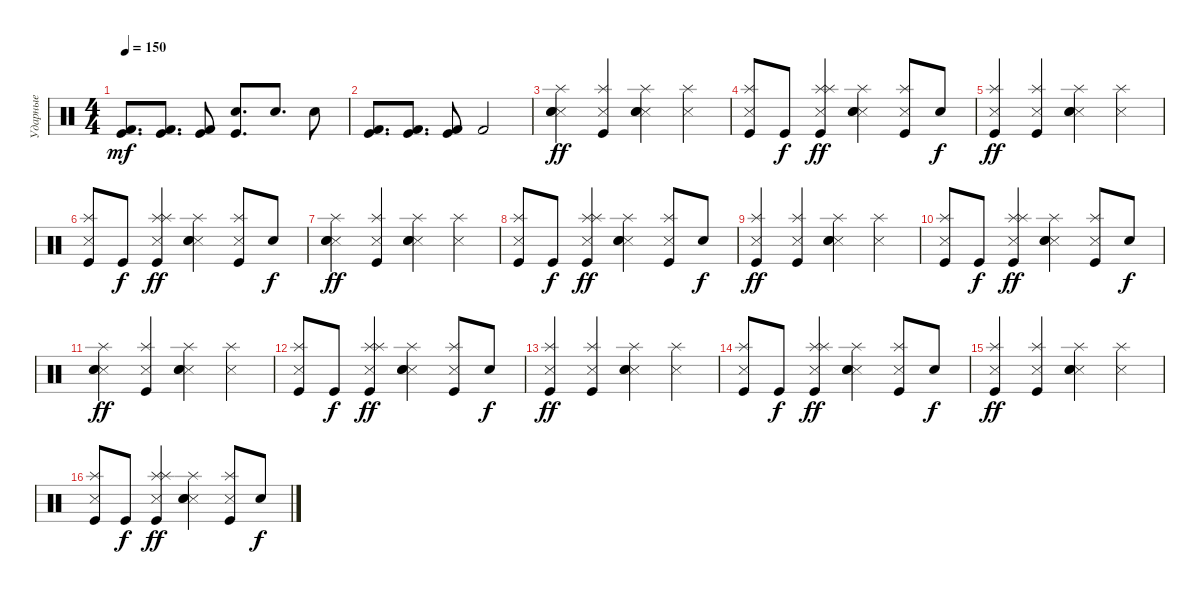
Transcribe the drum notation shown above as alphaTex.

\track ("Ударные" "Ударные") {instrument percussion}
\staff {score}
\articulation defaults
\ts (4 4)
\tempo 150
\clef neutral
\ks c
("Kick (hit)" "Kick (hit) 2").8{d dy mf} ("Kick (hit)" "Kick (hit) 2").8{d} ("Kick (hit)" "Kick (hit) 2").8 ("Electric Snare (hit)" "Kick (hit)").8{d} "Electric Snare (hit)".8{d} "Electric Snare (hit)".8 |
("Kick (hit)" "Kick (hit) 2").8{d} ("Kick (hit)" "Kick (hit) 2").8{d} ("Kick (hit)" "Kick (hit) 2").8 "Kick (hit) 2".2 |
("Splash (hit)" "Metronome (hit)" "Electric Snare (hit)" "Snare (hit) 2").4{dy ff} ("Splash (hit)" "Metronome (hit)" "Kick (hit)").4 ("Splash (hit)" "Metronome (hit)" "Electric Snare (hit)" "Snare (hit) 2").4 ("Splash (hit)" "Metronome (hit)").4 |
("Splash (hit)" "Metronome (hit)" "Kick (hit)").8 "Kick (hit)".8{dy f} ("Splash (hit)" "Metronome (hit)" "Splash (hit)" "Kick (hit)").4{dy ff} ("Splash (hit)" "Metronome (hit)" "Electric Snare (hit)" "Snare (hit) 2").4 ("Splash (hit)" "Metronome (hit)" "Kick (hit)").8 "Electric Snare (hit)".8{dy f} |
("Splash (hit)" "Metronome (hit)" "Kick (hit)").4{dy ff} ("Splash (hit)" "Metronome (hit)" "Kick (hit)").4 ("Splash (hit)" "Metronome (hit)" "Electric Snare (hit)" "Snare (hit) 2").4 ("Splash (hit)" "Metronome (hit)").4 |
("Splash (hit)" "Metronome (hit)" "Kick (hit)").8 "Kick (hit)".8{dy f} ("Splash (hit)" "Metronome (hit)" "Splash (hit)" "Kick (hit)").4{dy ff} ("Splash (hit)" "Metronome (hit)" "Electric Snare (hit)" "Snare (hit) 2").4 ("Splash (hit)" "Metronome (hit)" "Kick (hit)").8 "Electric Snare (hit)".8{dy f} |
("Splash (hit)" "Metronome (hit)" "Electric Snare (hit)" "Snare (hit) 2").4{dy ff} ("Splash (hit)" "Metronome (hit)" "Kick (hit)").4 ("Splash (hit)" "Metronome (hit)" "Electric Snare (hit)" "Snare (hit) 2").4 ("Splash (hit)" "Metronome (hit)").4 |
("Splash (hit)" "Metronome (hit)" "Kick (hit)").8 "Kick (hit)".8{dy f} ("Splash (hit)" "Metronome (hit)" "Splash (hit)" "Kick (hit)").4{dy ff} ("Splash (hit)" "Metronome (hit)" "Electric Snare (hit)" "Snare (hit) 2").4 ("Splash (hit)" "Metronome (hit)" "Kick (hit)").8 "Electric Snare (hit)".8{dy f} |
("Splash (hit)" "Metronome (hit)" "Kick (hit)").4{dy ff} ("Splash (hit)" "Metronome (hit)" "Kick (hit)").4 ("Splash (hit)" "Metronome (hit)" "Electric Snare (hit)" "Snare (hit) 2").4 ("Splash (hit)" "Metronome (hit)").4 |
("Splash (hit)" "Metronome (hit)" "Kick (hit)").8 "Kick (hit)".8{dy f} ("Splash (hit)" "Metronome (hit)" "Splash (hit)" "Kick (hit)").4{dy ff} ("Splash (hit)" "Metronome (hit)" "Electric Snare (hit)" "Snare (hit) 2").4 ("Splash (hit)" "Metronome (hit)" "Kick (hit)").8 "Electric Snare (hit)".8{dy f} |
("Splash (hit)" "Metronome (hit)" "Electric Snare (hit)" "Snare (hit) 2").4{dy ff} ("Splash (hit)" "Metronome (hit)" "Kick (hit)").4 ("Splash (hit)" "Metronome (hit)" "Electric Snare (hit)" "Snare (hit) 2").4 ("Splash (hit)" "Metronome (hit)").4 |
("Splash (hit)" "Metronome (hit)" "Kick (hit)").8 "Kick (hit)".8{dy f} ("Splash (hit)" "Metronome (hit)" "Splash (hit)" "Kick (hit)").4{dy ff} ("Splash (hit)" "Metronome (hit)" "Electric Snare (hit)" "Snare (hit) 2").4 ("Splash (hit)" "Metronome (hit)" "Kick (hit)").8 "Electric Snare (hit)".8{dy f} |
("Splash (hit)" "Metronome (hit)" "Kick (hit)").4{dy ff} ("Splash (hit)" "Metronome (hit)" "Kick (hit)").4 ("Splash (hit)" "Metronome (hit)" "Electric Snare (hit)" "Snare (hit) 2").4 ("Splash (hit)" "Metronome (hit)").4 |
("Splash (hit)" "Metronome (hit)" "Kick (hit)").8 "Kick (hit)".8{dy f} ("Splash (hit)" "Metronome (hit)" "Splash (hit)" "Kick (hit)").4{dy ff} ("Splash (hit)" "Metronome (hit)" "Electric Snare (hit)" "Snare (hit) 2").4 ("Splash (hit)" "Metronome (hit)" "Kick (hit)").8 "Electric Snare (hit)".8{dy f} |
("Splash (hit)" "Metronome (hit)" "Kick (hit)").4{dy ff} ("Splash (hit)" "Metronome (hit)" "Kick (hit)").4 ("Splash (hit)" "Metronome (hit)" "Electric Snare (hit)" "Snare (hit) 2").4 ("Splash (hit)" "Metronome (hit)").4 |
("Splash (hit)" "Metronome (hit)" "Kick (hit)").8 "Kick (hit)".8{dy f} ("Splash (hit)" "Metronome (hit)" "Splash (hit)" "Kick (hit)").4{dy ff} ("Splash (hit)" "Metronome (hit)" "Electric Snare (hit)" "Snare (hit) 2").4 ("Splash (hit)" "Metronome (hit)" "Kick (hit)").8 "Electric Snare (hit)".8{dy f}
